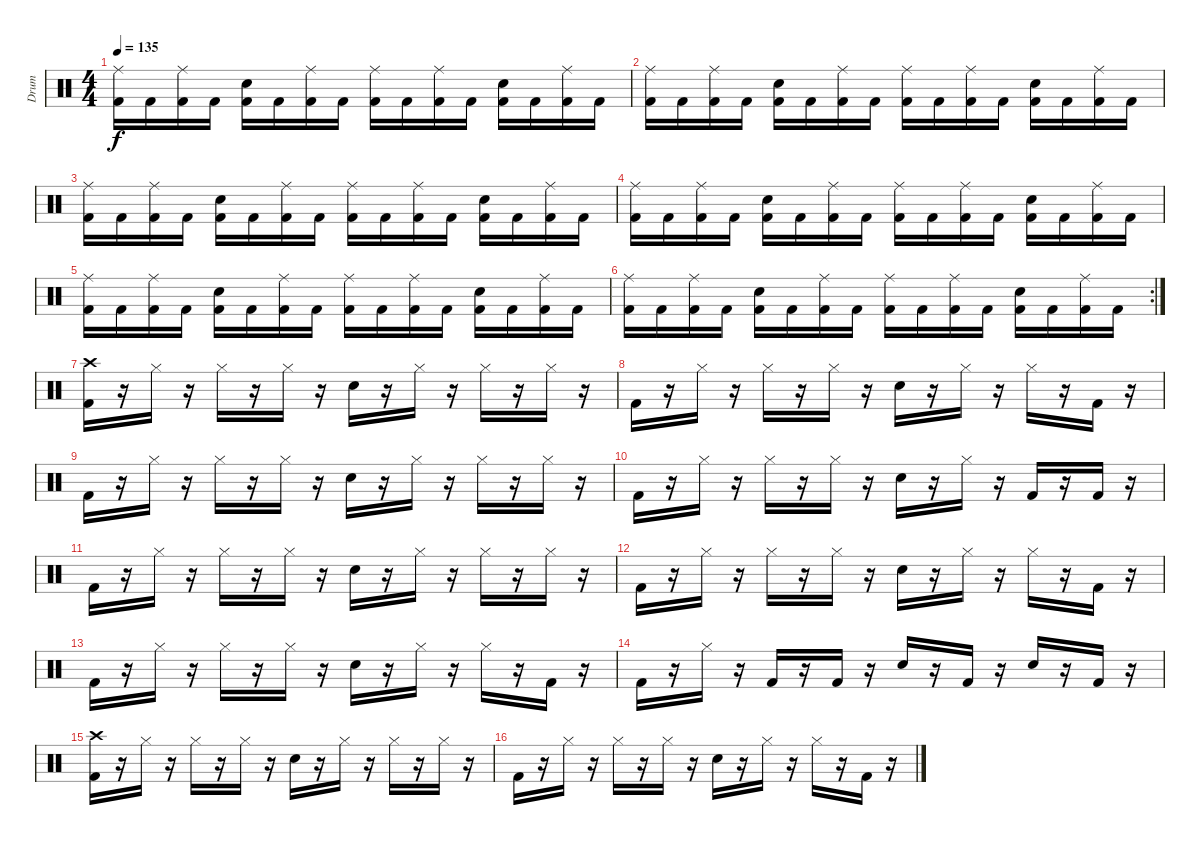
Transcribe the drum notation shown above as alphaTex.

\track ("Drum" "Drum") {instrument percussion}
\staff {score}
\articulation defaults
\ts (4 4)
\tempo 135
\clef neutral
\ks c
("Ride (middle)" "Kick (hit) 2").16{dy f} "Kick (hit) 2".16 ("Ride (middle)" "Kick (hit) 2").16 "Kick (hit) 2".16 ("Electric Snare (hit)" "Kick (hit) 2").16 "Kick (hit) 2".16 ("Ride (middle)" "Kick (hit) 2").16 "Kick (hit) 2".16 ("Ride (middle)" "Kick (hit) 2").16 "Kick (hit) 2".16 ("Ride (middle)" "Kick (hit) 2").16 "Kick (hit) 2".16 ("Electric Snare (hit)" "Kick (hit) 2").16 "Kick (hit) 2".16 ("Ride (middle)" "Kick (hit) 2").16 "Kick (hit) 2".16 |
("Ride (middle)" "Kick (hit) 2").16 "Kick (hit) 2".16 ("Ride (middle)" "Kick (hit) 2").16 "Kick (hit) 2".16 ("Electric Snare (hit)" "Kick (hit) 2").16 "Kick (hit) 2".16 ("Ride (middle)" "Kick (hit) 2").16 "Kick (hit) 2".16 ("Ride (middle)" "Kick (hit) 2").16 "Kick (hit) 2".16 ("Ride (middle)" "Kick (hit) 2").16 "Kick (hit) 2".16 ("Electric Snare (hit)" "Kick (hit) 2").16 "Kick (hit) 2".16 ("Ride (middle)" "Kick (hit) 2").16 "Kick (hit) 2".16 |
("Ride (middle)" "Kick (hit) 2").16 "Kick (hit) 2".16 ("Ride (middle)" "Kick (hit) 2").16 "Kick (hit) 2".16 ("Electric Snare (hit)" "Kick (hit) 2").16 "Kick (hit) 2".16 ("Ride (middle)" "Kick (hit) 2").16 "Kick (hit) 2".16 ("Ride (middle)" "Kick (hit) 2").16 "Kick (hit) 2".16 ("Ride (middle)" "Kick (hit) 2").16 "Kick (hit) 2".16 ("Electric Snare (hit)" "Kick (hit) 2").16 "Kick (hit) 2".16 ("Ride (middle)" "Kick (hit) 2").16 "Kick (hit) 2".16 |
("Ride (middle)" "Kick (hit) 2").16 "Kick (hit) 2".16 ("Ride (middle)" "Kick (hit) 2").16 "Kick (hit) 2".16 ("Electric Snare (hit)" "Kick (hit) 2").16 "Kick (hit) 2".16 ("Ride (middle)" "Kick (hit) 2").16 "Kick (hit) 2".16 ("Ride (middle)" "Kick (hit) 2").16 "Kick (hit) 2".16 ("Ride (middle)" "Kick (hit) 2").16 "Kick (hit) 2".16 ("Electric Snare (hit)" "Kick (hit) 2").16 "Kick (hit) 2".16 ("Ride (middle)" "Kick (hit) 2").16 "Kick (hit) 2".16 |
("Ride (middle)" "Kick (hit) 2").16 "Kick (hit) 2".16 ("Ride (middle)" "Kick (hit) 2").16 "Kick (hit) 2".16 ("Electric Snare (hit)" "Kick (hit) 2").16 "Kick (hit) 2".16 ("Ride (middle)" "Kick (hit) 2").16 "Kick (hit) 2".16 ("Ride (middle)" "Kick (hit) 2").16 "Kick (hit) 2".16 ("Ride (middle)" "Kick (hit) 2").16 "Kick (hit) 2".16 ("Electric Snare (hit)" "Kick (hit) 2").16 "Kick (hit) 2".16 ("Ride (middle)" "Kick (hit) 2").16 "Kick (hit) 2".16 |
\rc 2
("Ride (middle)" "Kick (hit) 2").16 "Kick (hit) 2".16 ("Ride (middle)" "Kick (hit) 2").16 "Kick (hit) 2".16 ("Electric Snare (hit)" "Kick (hit) 2").16 "Kick (hit) 2".16 ("Ride (middle)" "Kick (hit) 2").16 "Kick (hit) 2".16 ("Ride (middle)" "Kick (hit) 2").16 "Kick (hit) 2".16 ("Ride (middle)" "Kick (hit) 2").16 "Kick (hit) 2".16 ("Electric Snare (hit)" "Kick (hit) 2").16 "Kick (hit) 2".16 ("Ride (middle)" "Kick (hit) 2").16 "Kick (hit) 2".16 |
("Crash high (hit)" "Kick (hit) 2").16 r.16 "Hi-Hat (closed)".16 r.16 "Hi-Hat (closed)".16 r.16 "Hi-Hat (closed)".16 r.16 "Electric Snare (hit)".16 r.16 "Hi-Hat (closed)".16 r.16 "Hi-Hat (closed)".16 r.16 "Hi-Hat (closed)".16 r.16 |
"Kick (hit) 2".16 r.16 "Hi-Hat (closed)".16 r.16 "Hi-Hat (closed)".16 r.16 "Hi-Hat (closed)".16 r.16 "Electric Snare (hit)".16 r.16 "Hi-Hat (closed)".16 r.16 "Hi-Hat (closed)".16 r.16 "Kick (hit) 2".16 r.16 |
"Kick (hit) 2".16 r.16 "Hi-Hat (closed)".16 r.16 "Hi-Hat (closed)".16 r.16 "Hi-Hat (closed)".16 r.16 "Electric Snare (hit)".16 r.16 "Hi-Hat (closed)".16 r.16 "Hi-Hat (closed)".16 r.16 "Hi-Hat (closed)".16 r.16 |
"Kick (hit) 2".16 r.16 "Hi-Hat (closed)".16 r.16 "Hi-Hat (closed)".16 r.16 "Hi-Hat (closed)".16 r.16 "Electric Snare (hit)".16 r.16 "Hi-Hat (closed)".16 r.16 "Kick (hit) 2".16 r.16 "Kick (hit) 2".16 r.16 |
"Kick (hit) 2".16 r.16 "Hi-Hat (closed)".16 r.16 "Hi-Hat (closed)".16 r.16 "Hi-Hat (closed)".16 r.16 "Electric Snare (hit)".16 r.16 "Hi-Hat (closed)".16 r.16 "Hi-Hat (closed)".16 r.16 "Hi-Hat (closed)".16 r.16 |
"Kick (hit) 2".16 r.16 "Hi-Hat (closed)".16 r.16 "Hi-Hat (closed)".16 r.16 "Hi-Hat (closed)".16 r.16 "Electric Snare (hit)".16 r.16 "Hi-Hat (closed)".16 r.16 "Hi-Hat (closed)".16 r.16 "Kick (hit) 2".16 r.16 |
"Kick (hit) 2".16 r.16 "Hi-Hat (closed)".16 r.16 "Hi-Hat (closed)".16 r.16 "Hi-Hat (closed)".16 r.16 "Electric Snare (hit)".16 r.16 "Hi-Hat (closed)".16 r.16 "Hi-Hat (closed)".16 r.16 "Kick (hit) 2".16 r.16 |
"Kick (hit) 2".16 r.16 "Hi-Hat (closed)".16 r.16 "Kick (hit) 2".16 r.16 "Kick (hit) 2".16 r.16 "Electric Snare (hit)".16 r.16 "Kick (hit) 2".16 r.16 "Electric Snare (hit)".16 r.16 "Kick (hit) 2".16 r.16 |
("Crash high (hit)" "Kick (hit) 2").16 r.16 "Hi-Hat (closed)".16 r.16 "Hi-Hat (closed)".16 r.16 "Hi-Hat (closed)".16 r.16 "Electric Snare (hit)".16 r.16 "Hi-Hat (closed)".16 r.16 "Hi-Hat (closed)".16 r.16 "Hi-Hat (closed)".16 r.16 |
"Kick (hit) 2".16 r.16 "Hi-Hat (closed)".16 r.16 "Hi-Hat (closed)".16 r.16 "Hi-Hat (closed)".16 r.16 "Electric Snare (hit)".16 r.16 "Hi-Hat (closed)".16 r.16 "Hi-Hat (closed)".16 r.16 "Kick (hit) 2".16 r.16
